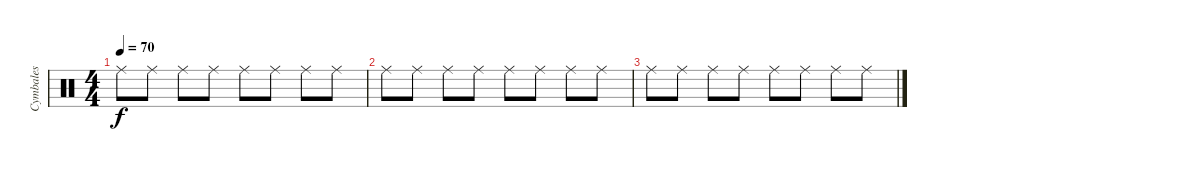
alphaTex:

\track ("Cymbales" "Cymbales") {instrument percussion}
\staff {score}
\articulation defaults
\ts (4 4)
\tempo 70
\clef neutral
\ks c "Ride (middle)".8{dy f} "Ride (middle)".8 "Ride (middle)".8 "Ride (middle)".8 "Ride (middle)".8 "Ride (middle)".8 "Ride (middle)".8 "Ride (middle)".8
|
"Ride (middle)".8 "Ride (middle)".8 "Ride (middle)".8 "Ride (middle)".8 "Ride (middle)".8 "Ride (middle)".8 "Ride (middle)".8 "Ride (middle)".8 |
"Ride (middle)".8 "Ride (middle)".8 "Ride (middle)".8 "Ride (middle)".8 "Ride (middle)".8 "Ride (middle)".8 "Ride (middle)".8 "Ride (middle)".8
